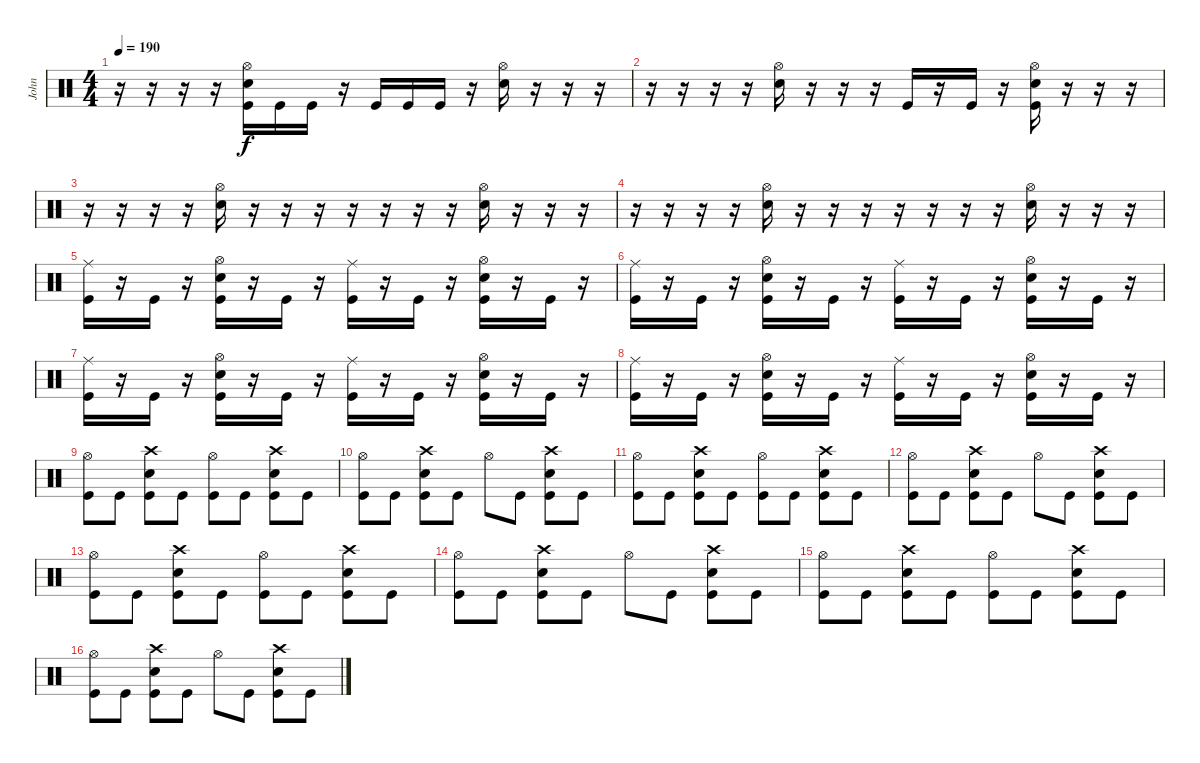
\track ("John" "John") {instrument percussion}
\staff {score}
\articulation defaults
\ts (4 4)
\tempo 190
\clef neutral
\ks c
r.16{dy f} r.16 r.16 r.16 ("Kick (hit)" "Snare (hit) 2" "Hi-Hat (open)").16 "Kick (hit)".16 "Kick (hit)".16 r.16 "Kick (hit)".16 "Kick (hit)".16 "Kick (hit)".16 r.16 ("Snare (hit) 2" "Hi-Hat (open)").16 r.16 r.16 r.16 |
r.16 r.16 r.16 r.16 ("Snare (hit) 2" "Hi-Hat (open)").16 r.16 r.16 r.16 "Kick (hit)".16 r.16 "Kick (hit)".16 r.16 ("Kick (hit)" "Snare (hit) 2" "Hi-Hat (open)").16 r.16 r.16 r.16 |
r.16 r.16 r.16 r.16 ("Snare (hit) 2" "Hi-Hat (open)").16 r.16 r.16 r.16 r.16 r.16 r.16 r.16 ("Snare (hit) 2" "Hi-Hat (open)").16 r.16 r.16 r.16 |
r.16 r.16 r.16 r.16 ("Snare (hit) 2" "Hi-Hat (open)").16 r.16 r.16 r.16 r.16 r.16 r.16 r.16 ("Snare (hit) 2" "Hi-Hat (open)").16 r.16 r.16 r.16 |
("Kick (hit)" "Ride (middle)").16 r.16 "Kick (hit)".16 r.16 ("Kick (hit)" "Snare (hit) 2" "Hi-Hat (open)").16 r.16 "Kick (hit)".16 r.16 ("Kick (hit)" "Ride (middle)").16 r.16 "Kick (hit)".16 r.16 ("Kick (hit)" "Snare (hit) 2" "Hi-Hat (open)").16 r.16 "Kick (hit)".16 r.16 |
("Kick (hit)" "Ride (middle)").16 r.16 "Kick (hit)".16 r.16 ("Kick (hit)" "Snare (hit) 2" "Hi-Hat (open)").16 r.16 "Kick (hit)".16 r.16 ("Kick (hit)" "Ride (middle)").16 r.16 "Kick (hit)".16 r.16 ("Kick (hit)" "Snare (hit) 2" "Hi-Hat (open)").16 r.16 "Kick (hit)".16 r.16 |
("Kick (hit)" "Ride (middle)").16 r.16 "Kick (hit)".16 r.16 ("Kick (hit)" "Snare (hit) 2" "Hi-Hat (open)").16 r.16 "Kick (hit)".16 r.16 ("Kick (hit)" "Ride (middle)").16 r.16 "Kick (hit)".16 r.16 ("Kick (hit)" "Snare (hit) 2" "Hi-Hat (open)").16 r.16 "Kick (hit)".16 r.16 |
("Kick (hit)" "Ride (middle)").16 r.16 "Kick (hit)".16 r.16 ("Kick (hit)" "Snare (hit) 2" "Hi-Hat (open)").16 r.16 "Kick (hit)".16 r.16 ("Kick (hit)" "Ride (middle)").16 r.16 "Kick (hit)".16 r.16 ("Kick (hit)" "Snare (hit) 2" "Hi-Hat (open)").16 r.16 "Kick (hit)".16 r.16 |
("Kick (hit)" "Hi-Hat (open)").8 "Kick (hit)".8 ("Kick (hit)" "Snare (hit) 2" "Crash high (hit)").8 "Kick (hit)".8 ("Kick (hit)" "Hi-Hat (open)").8 "Kick (hit)".8 ("Kick (hit)" "Snare (hit) 2" "Crash high (hit)").8 "Kick (hit)".8 |
("Kick (hit)" "Hi-Hat (open)").8 "Kick (hit)".8 ("Kick (hit)" "Snare (hit) 2" "Crash high (hit)").8 "Kick (hit)".8 "Hi-Hat (open)".8 "Kick (hit)".8 ("Kick (hit)" "Snare (hit) 2" "Crash high (hit)").8 "Kick (hit)".8 |
("Kick (hit)" "Hi-Hat (open)").8 "Kick (hit)".8 ("Kick (hit)" "Snare (hit) 2" "Crash high (hit)").8 "Kick (hit)".8 ("Kick (hit)" "Hi-Hat (open)").8 "Kick (hit)".8 ("Kick (hit)" "Snare (hit) 2" "Crash high (hit)").8 "Kick (hit)".8 |
("Kick (hit)" "Hi-Hat (open)").8 "Kick (hit)".8 ("Kick (hit)" "Snare (hit) 2" "Crash high (hit)").8 "Kick (hit)".8 "Hi-Hat (open)".8 "Kick (hit)".8 ("Kick (hit)" "Snare (hit) 2" "Crash high (hit)").8 "Kick (hit)".8 |
("Kick (hit)" "Hi-Hat (open)").8 "Kick (hit)".8 ("Kick (hit)" "Snare (hit) 2" "Crash high (hit)").8 "Kick (hit)".8 ("Kick (hit)" "Hi-Hat (open)").8 "Kick (hit)".8 ("Kick (hit)" "Snare (hit) 2" "Crash high (hit)").8 "Kick (hit)".8 |
("Kick (hit)" "Hi-Hat (open)").8 "Kick (hit)".8 ("Kick (hit)" "Snare (hit) 2" "Crash high (hit)").8 "Kick (hit)".8 "Hi-Hat (open)".8 "Kick (hit)".8 ("Kick (hit)" "Snare (hit) 2" "Crash high (hit)").8 "Kick (hit)".8 |
("Kick (hit)" "Hi-Hat (open)").8 "Kick (hit)".8 ("Kick (hit)" "Snare (hit) 2" "Crash high (hit)").8 "Kick (hit)".8 ("Kick (hit)" "Hi-Hat (open)").8 "Kick (hit)".8 ("Kick (hit)" "Snare (hit) 2" "Crash high (hit)").8 "Kick (hit)".8 |
("Kick (hit)" "Hi-Hat (open)").8 "Kick (hit)".8 ("Kick (hit)" "Snare (hit) 2" "Crash high (hit)").8 "Kick (hit)".8 "Hi-Hat (open)".8 "Kick (hit)".8 ("Kick (hit)" "Snare (hit) 2" "Crash high (hit)").8 "Kick (hit)".8
